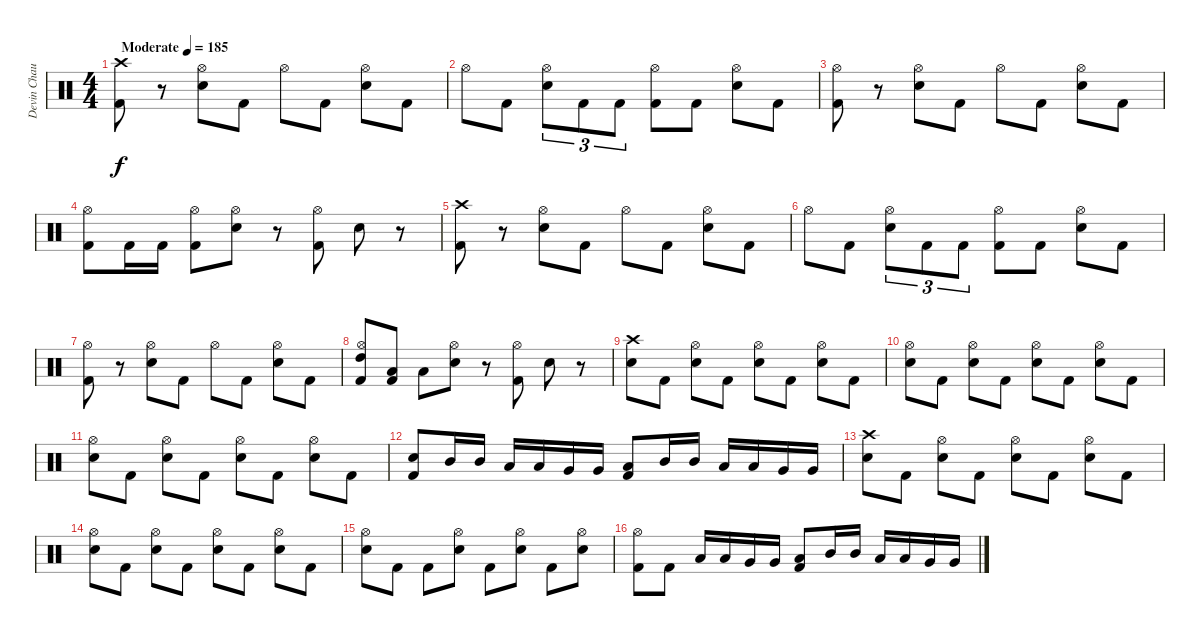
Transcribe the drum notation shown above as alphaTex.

\track ("Devin Chaulk" "Devin Chau") {instrument percussion}
\staff {score}
\articulation defaults
\ts (4 4)
\tempo (185 "Moderate")
\clef neutral
\ks c
("Crash high (hit)" "Kick (hit) 2").8{dy f} r.8 ("Hi-Hat (open)" "Snare (hit) 2").8 "Kick (hit) 2".8 "Hi-Hat (open)".8 "Kick (hit) 2".8 ("Hi-Hat (open)" "Snare (hit) 2").8 "Kick (hit) 2".8 |
"Hi-Hat (open)".8 "Kick (hit) 2".8 ("Hi-Hat (open)" "Snare (hit) 2").8{tu (3 2)} "Kick (hit) 2".8{tu (3 2)} "Kick (hit) 2".8{tu (3 2)} ("Hi-Hat (open)" "Kick (hit) 2").8 "Kick (hit) 2".8 ("Hi-Hat (open)" "Snare (hit) 2").8 "Kick (hit) 2".8 |
("Hi-Hat (open)" "Kick (hit) 2").8 r.8 ("Hi-Hat (open)" "Snare (hit) 2").8 "Kick (hit) 2".8 "Hi-Hat (open)".8 "Kick (hit) 2".8 ("Hi-Hat (open)" "Snare (hit) 2").8 "Kick (hit) 2".8 |
("Hi-Hat (open)" "Kick (hit) 2").8 "Kick (hit) 2".16 "Kick (hit) 2".16 ("Hi-Hat (open)" "Kick (hit) 2").8 ("Hi-Hat (open)" "Snare (hit) 2").8 r.8 ("Hi-Hat (open)" "Kick (hit) 2").8 "Snare (hit) 2".8 r.8 |
("Crash high (hit)" "Kick (hit) 2").8 r.8 ("Hi-Hat (open)" "Snare (hit) 2").8 "Kick (hit) 2".8 "Hi-Hat (open)".8 "Kick (hit) 2".8 ("Hi-Hat (open)" "Snare (hit) 2").8 "Kick (hit) 2".8 |
"Hi-Hat (open)".8 "Kick (hit) 2".8 ("Hi-Hat (open)" "Snare (hit) 2").8{tu (3 2)} "Kick (hit) 2".8{tu (3 2)} "Kick (hit) 2".8{tu (3 2)} ("Hi-Hat (open)" "Kick (hit) 2").8 "Kick (hit) 2".8 ("Hi-Hat (open)" "Snare (hit) 2").8 "Kick (hit) 2".8 |
("Hi-Hat (open)" "Kick (hit) 2").8 r.8 ("Hi-Hat (open)" "Snare (hit) 2").8 "Kick (hit) 2".8 "Hi-Hat (open)".8 "Kick (hit) 2".8 ("Hi-Hat (open)" "Snare (hit) 2").8 "Kick (hit) 2".8 |
("Hi-Hat (open)" "High Tom (hit)" "Kick (hit) 2").8 ("Low Tom (hit)" "Kick (hit) 2").8 "Low Floor Tom (hit)".8 ("Hi-Hat (open)" "Snare (hit) 2").8 r.8 ("Hi-Hat (open)" "Kick (hit) 2").8 "Snare (hit) 2".8 r.8 |
("Crash high (hit)" "Snare (hit) 2").8 "Kick (hit) 2".8 ("Hi-Hat (open)" "Snare (hit) 2").8 "Kick (hit) 2".8 ("Hi-Hat (open)" "Snare (hit) 2").8 "Kick (hit) 2".8 ("Hi-Hat (open)" "Snare (hit) 2").8 "Kick (hit) 2".8 |
("Hi-Hat (open)" "Snare (hit) 2").8 "Kick (hit) 2".8 ("Hi-Hat (open)" "Snare (hit) 2").8 "Kick (hit) 2".8 ("Hi-Hat (open)" "Snare (hit) 2").8 "Kick (hit) 2".8 ("Hi-Hat (open)" "Snare (hit) 2").8 "Kick (hit) 2".8 |
("Hi-Hat (open)" "Snare (hit) 2").8 "Kick (hit) 2".8 ("Hi-Hat (open)" "Snare (hit) 2").8 "Kick (hit) 2".8 ("Hi-Hat (open)" "Snare (hit) 2").8 "Kick (hit) 2".8 ("Hi-Hat (open)" "Snare (hit) 2").8 "Kick (hit) 2".8 |
("Snare (hit) 2" "Kick (hit) 2").8 "Mid Tom (hit)".16 "Mid Tom (hit)".16 "Low Tom (hit)".16 "Low Tom (hit)".16 "Very Low Tom (hit)".16 "Very Low Tom (hit)".16 ("Low Tom (hit)" "Kick (hit) 2").8 "Mid Tom (hit)".16 "Mid Tom (hit)".16 "Low Tom (hit)".16 "Low Tom (hit)".16 "Very Low Tom (hit)".16 "Very Low Tom (hit)".16 |
("Crash high (hit)" "Snare (hit) 2").8 "Kick (hit) 2".8 ("Hi-Hat (open)" "Snare (hit) 2").8 "Kick (hit) 2".8 ("Hi-Hat (open)" "Snare (hit) 2").8 "Kick (hit) 2".8 ("Hi-Hat (open)" "Snare (hit) 2").8 "Kick (hit) 2".8 |
("Hi-Hat (open)" "Snare (hit) 2").8 "Kick (hit) 2".8 ("Hi-Hat (open)" "Snare (hit) 2").8 "Kick (hit) 2".8 ("Hi-Hat (open)" "Snare (hit) 2").8 "Kick (hit) 2".8 ("Hi-Hat (open)" "Snare (hit) 2").8 "Kick (hit) 2".8 |
("Hi-Hat (open)" "Snare (hit) 2").8 "Kick (hit) 2".8 "Kick (hit) 2".8 ("Hi-Hat (open)" "Snare (hit) 2").8 "Kick (hit) 2".8 ("Hi-Hat (open)" "Snare (hit) 2").8 "Kick (hit) 2".8 ("Hi-Hat (open)" "Snare (hit) 2").8 |
("Hi-Hat (open)" "Kick (hit) 2").8 "Kick (hit) 2".8 "Low Tom (hit)".16 "Low Tom (hit)".16 "Very Low Tom (hit)".16 "Very Low Tom (hit)".16 ("Low Tom (hit)" "Kick (hit) 2").8 "Mid Tom (hit)".16 "Mid Tom (hit)".16 "Low Tom (hit)".16 "Low Tom (hit)".16 "Very Low Tom (hit)".16 "Very Low Tom (hit)".16
